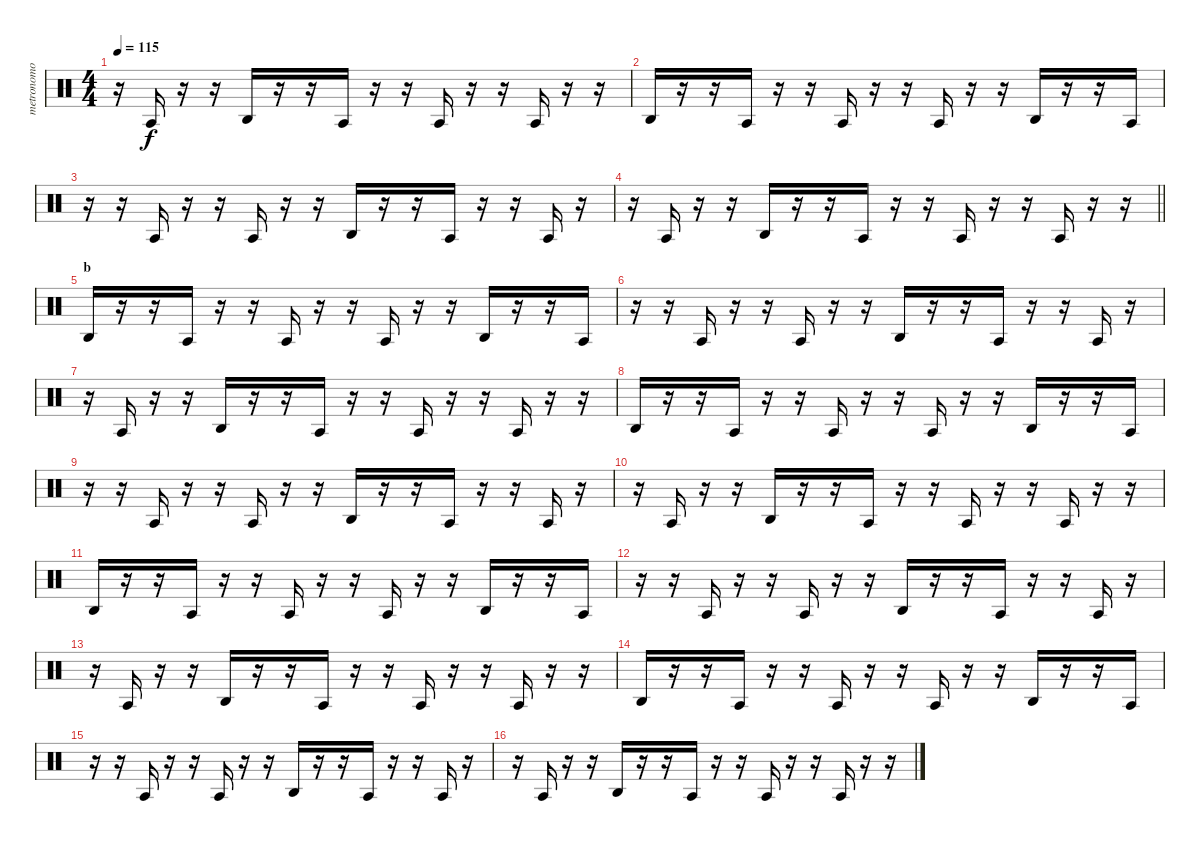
\track ("metronomo" "metronomo") {mute instrument percussion}
\staff {score}
\articulation defaults
\ts (4 4)
\tempo 115
\clef neutral
\ks c
r.16{dy f} "Agogo tow (hit)".16 r.16 r.16 "Agogo high (hit)".16 r.16 r.16 "Agogo tow (hit)".16 r.16 r.16 "Agogo tow (hit)".16 r.16 r.16 "Agogo tow (hit)".16 r.16 r.16 |
"Agogo high (hit)".16 r.16 r.16 "Agogo tow (hit)".16 r.16 r.16 "Agogo tow (hit)".16 r.16 r.16 "Agogo tow (hit)".16 r.16 r.16 "Agogo high (hit)".16 r.16 r.16 "Agogo tow (hit)".16 |
r.16 r.16 "Agogo tow (hit)".16 r.16 r.16 "Agogo tow (hit)".16 r.16 r.16 "Agogo high (hit)".16 r.16 r.16 "Agogo tow (hit)".16 r.16 r.16 "Agogo tow (hit)".16 r.16 |
\barLineRight lightlight
r.16 "Agogo tow (hit)".16 r.16 r.16 "Agogo high (hit)".16 r.16 r.16 "Agogo tow (hit)".16 r.16 r.16 "Agogo tow (hit)".16 r.16 r.16 "Agogo tow (hit)".16 r.16 r.16 |
\section ("" "b")
"Agogo high (hit)".16 r.16 r.16 "Agogo tow (hit)".16 r.16 r.16 "Agogo tow (hit)".16 r.16 r.16 "Agogo tow (hit)".16 r.16 r.16 "Agogo high (hit)".16 r.16 r.16 "Agogo tow (hit)".16 |
r.16 r.16 "Agogo tow (hit)".16 r.16 r.16 "Agogo tow (hit)".16 r.16 r.16 "Agogo high (hit)".16 r.16 r.16 "Agogo tow (hit)".16 r.16 r.16 "Agogo tow (hit)".16 r.16 |
r.16 "Agogo tow (hit)".16 r.16 r.16 "Agogo high (hit)".16 r.16 r.16 "Agogo tow (hit)".16 r.16 r.16 "Agogo tow (hit)".16 r.16 r.16 "Agogo tow (hit)".16 r.16 r.16 |
"Agogo high (hit)".16 r.16 r.16 "Agogo tow (hit)".16 r.16 r.16 "Agogo tow (hit)".16 r.16 r.16 "Agogo tow (hit)".16 r.16 r.16 "Agogo high (hit)".16 r.16 r.16 "Agogo tow (hit)".16 |
r.16 r.16 "Agogo tow (hit)".16 r.16 r.16 "Agogo tow (hit)".16 r.16 r.16 "Agogo high (hit)".16 r.16 r.16 "Agogo tow (hit)".16 r.16 r.16 "Agogo tow (hit)".16 r.16 |
r.16 "Agogo tow (hit)".16 r.16 r.16 "Agogo high (hit)".16 r.16 r.16 "Agogo tow (hit)".16 r.16 r.16 "Agogo tow (hit)".16 r.16 r.16 "Agogo tow (hit)".16 r.16 r.16 |
"Agogo high (hit)".16 r.16 r.16 "Agogo tow (hit)".16 r.16 r.16 "Agogo tow (hit)".16 r.16 r.16 "Agogo tow (hit)".16 r.16 r.16 "Agogo high (hit)".16 r.16 r.16 "Agogo tow (hit)".16 |
r.16 r.16 "Agogo tow (hit)".16 r.16 r.16 "Agogo tow (hit)".16 r.16 r.16 "Agogo high (hit)".16 r.16 r.16 "Agogo tow (hit)".16 r.16 r.16 "Agogo tow (hit)".16 r.16 |
r.16 "Agogo tow (hit)".16 r.16 r.16 "Agogo high (hit)".16 r.16 r.16 "Agogo tow (hit)".16 r.16 r.16 "Agogo tow (hit)".16 r.16 r.16 "Agogo tow (hit)".16 r.16 r.16 |
"Agogo high (hit)".16 r.16 r.16 "Agogo tow (hit)".16 r.16 r.16 "Agogo tow (hit)".16 r.16 r.16 "Agogo tow (hit)".16 r.16 r.16 "Agogo high (hit)".16 r.16 r.16 "Agogo tow (hit)".16 |
r.16 r.16 "Agogo tow (hit)".16 r.16 r.16 "Agogo tow (hit)".16 r.16 r.16 "Agogo high (hit)".16 r.16 r.16 "Agogo tow (hit)".16 r.16 r.16 "Agogo tow (hit)".16 r.16 |
r.16 "Agogo tow (hit)".16 r.16 r.16 "Agogo high (hit)".16 r.16 r.16 "Agogo tow (hit)".16 r.16 r.16 "Agogo tow (hit)".16 r.16 r.16 "Agogo tow (hit)".16 r.16 r.16
